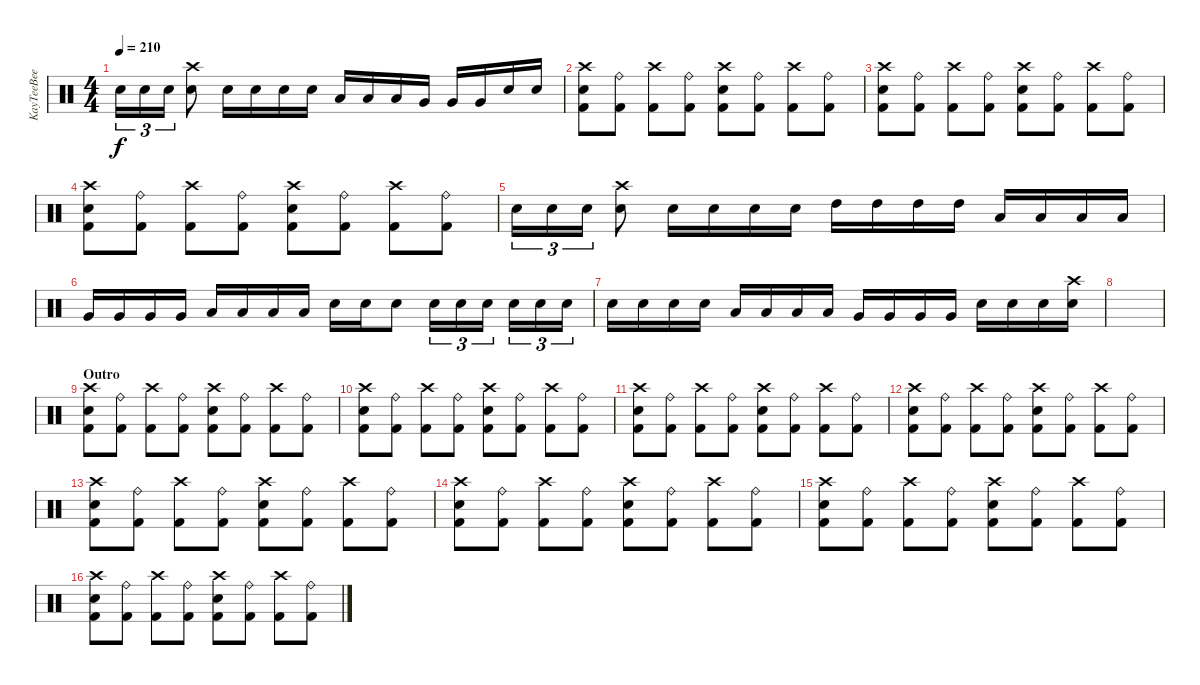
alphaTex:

\track ("KayTeeBee" "KayTeeBee") {instrument percussion}
\staff {score}
\articulation defaults
\ts (4 4)
\tempo 210
\clef neutral
\ks c "Electric Snare (hit)".16{tu (3 2) dy f} "Electric Snare (hit)".16{tu (3 2)} "Electric Snare (hit)".16{tu (3 2)}
("Electric Snare (hit)" "Crash high (hit)").8 "Electric Snare (hit)".16 "Electric Snare (hit)".16 "Electric Snare (hit)".16 "Electric Snare (hit)".16 "Low Tom (hit)".16 "Low Tom (hit)".16 "Low Tom (hit)".16 "Very Low Tom (hit)".16 "Very Low Tom (hit)".16 "Very Low Tom (hit)".16 "Electric Snare (hit)".16 "Electric Snare (hit)".16 |
("Kick (hit) 2" "Electric Snare (hit)" "Crash high (hit)").8 ("Kick (hit) 2" "Ride (bell)").8 ("Kick (hit) 2" "Crash high (hit)").8 ("Kick (hit) 2" "Ride (bell)").8 ("Kick (hit) 2" "Crash high (hit)" "Electric Snare (hit)").8 ("Kick (hit) 2" "Ride (bell)").8 ("Kick (hit) 2" "Crash high (hit)").8 ("Kick (hit) 2" "Ride (bell)").8 |
("Kick (hit) 2" "Electric Snare (hit)" "Crash high (hit)").8 ("Kick (hit) 2" "Ride (bell)").8 ("Kick (hit) 2" "Crash high (hit)").8 ("Kick (hit) 2" "Ride (bell)").8 ("Kick (hit) 2" "Crash high (hit)" "Electric Snare (hit)").8 ("Kick (hit) 2" "Ride (bell)").8 ("Kick (hit) 2" "Crash high (hit)").8 ("Kick (hit) 2" "Ride (bell)").8 |
("Kick (hit) 2" "Electric Snare (hit)" "Crash high (hit)").8 ("Kick (hit) 2" "Ride (bell)").8 ("Kick (hit) 2" "Crash high (hit)").8 ("Kick (hit) 2" "Ride (bell)").8 ("Kick (hit) 2" "Crash high (hit)" "Electric Snare (hit)").8 ("Kick (hit) 2" "Ride (bell)").8 ("Kick (hit) 2" "Crash high (hit)").8 ("Kick (hit) 2" "Ride (bell)").8 |
"Electric Snare (hit)".16{tu (3 2)} "Electric Snare (hit)".16{tu (3 2)} "Electric Snare (hit)".16{tu (3 2)} ("Electric Snare (hit)" "Crash high (hit)").8 "Electric Snare (hit)".16 "Electric Snare (hit)".16 "Electric Snare (hit)".16 "Electric Snare (hit)".16 "High Tom (hit)".16 "High Tom (hit)".16 "High Tom (hit)".16 "High Tom (hit)".16 "Low Tom (hit)".16 "Low Tom (hit)".16 "Low Tom (hit)".16 "Low Tom (hit)".16 |
"Very Low Tom (hit)".16 "Very Low Tom (hit)".16 "Very Low Tom (hit)".16 "Very Low Tom (hit)".16 "Low Floor Tom (hit)".16 "Low Floor Tom (hit)".16 "Low Floor Tom (hit)".16 "Low Floor Tom (hit)".16 "Electric Snare (hit)".16 "Electric Snare (hit)".16 "Electric Snare (hit)".8 "Electric Snare (hit)".16{tu (3 2)} "Electric Snare (hit)".16{tu (3 2)} "Electric Snare (hit)".16{tu (3 2)} "Electric Snare (hit)".16{tu (3 2)} "Electric Snare (hit)".16{tu (3 2)} "Electric Snare (hit)".16{tu (3 2)} |
"Electric Snare (hit)".16 "Electric Snare (hit)".16 "Electric Snare (hit)".16 "Electric Snare (hit)".16 "Low Tom (hit)".16 "Low Tom (hit)".16 "Low Tom (hit)".16 "Low Tom (hit)".16 "Very Low Tom (hit)".16 "Very Low Tom (hit)".16 "Very Low Tom (hit)".16 "Very Low Tom (hit)".16 "Electric Snare (hit)".16 "Electric Snare (hit)".16 "Electric Snare (hit)".16 ("Electric Snare (hit)" "Crash high (hit)").16 |
|
\section ("" "Outro")
("Kick (hit) 2" "Electric Snare (hit)" "Crash high (hit)").8 ("Kick (hit) 2" "Ride (bell)").8 ("Kick (hit) 2" "Crash high (hit)").8 ("Kick (hit) 2" "Ride (bell)").8 ("Kick (hit) 2" "Crash high (hit)" "Electric Snare (hit)").8 ("Kick (hit) 2" "Ride (bell)").8 ("Kick (hit) 2" "Crash high (hit)").8 ("Kick (hit) 2" "Ride (bell)").8 |
("Kick (hit) 2" "Electric Snare (hit)" "Crash high (hit)").8 ("Kick (hit) 2" "Ride (bell)").8 ("Kick (hit) 2" "Crash high (hit)").8 ("Kick (hit) 2" "Ride (bell)").8 ("Kick (hit) 2" "Crash high (hit)" "Electric Snare (hit)").8 ("Kick (hit) 2" "Ride (bell)").8 ("Kick (hit) 2" "Crash high (hit)").8 ("Kick (hit) 2" "Ride (bell)").8 |
("Kick (hit) 2" "Electric Snare (hit)" "Crash high (hit)").8 ("Kick (hit) 2" "Ride (bell)").8 ("Kick (hit) 2" "Crash high (hit)").8 ("Kick (hit) 2" "Ride (bell)").8 ("Kick (hit) 2" "Crash high (hit)" "Electric Snare (hit)").8 ("Kick (hit) 2" "Ride (bell)").8 ("Kick (hit) 2" "Crash high (hit)").8 ("Kick (hit) 2" "Ride (bell)").8 |
("Kick (hit) 2" "Electric Snare (hit)" "Crash high (hit)").8{volume 0} ("Kick (hit) 2" "Ride (bell)").8 ("Kick (hit) 2" "Crash high (hit)").8 ("Kick (hit) 2" "Ride (bell)").8 ("Kick (hit) 2" "Crash high (hit)" "Electric Snare (hit)").8 ("Kick (hit) 2" "Ride (bell)").8 ("Kick (hit) 2" "Crash high (hit)").8 ("Kick (hit) 2" "Ride (bell)").8 |
("Kick (hit) 2" "Electric Snare (hit)" "Crash high (hit)").8 ("Kick (hit) 2" "Ride (bell)").8 ("Kick (hit) 2" "Crash high (hit)").8 ("Kick (hit) 2" "Ride (bell)").8 ("Kick (hit) 2" "Crash high (hit)" "Electric Snare (hit)").8 ("Kick (hit) 2" "Ride (bell)").8 ("Kick (hit) 2" "Crash high (hit)").8 ("Kick (hit) 2" "Ride (bell)").8 |
("Kick (hit) 2" "Electric Snare (hit)" "Crash high (hit)").8 ("Kick (hit) 2" "Ride (bell)").8 ("Kick (hit) 2" "Crash high (hit)").8 ("Kick (hit) 2" "Ride (bell)").8 ("Kick (hit) 2" "Crash high (hit)" "Electric Snare (hit)").8 ("Kick (hit) 2" "Ride (bell)").8 ("Kick (hit) 2" "Crash high (hit)").8 ("Kick (hit) 2" "Ride (bell)").8 |
("Kick (hit) 2" "Electric Snare (hit)" "Crash high (hit)").8 ("Kick (hit) 2" "Ride (bell)").8 ("Kick (hit) 2" "Crash high (hit)").8 ("Kick (hit) 2" "Ride (bell)").8 ("Kick (hit) 2" "Crash high (hit)" "Electric Snare (hit)").8 ("Kick (hit) 2" "Ride (bell)").8 ("Kick (hit) 2" "Crash high (hit)").8 ("Kick (hit) 2" "Ride (bell)").8 |
("Kick (hit) 2" "Electric Snare (hit)" "Crash high (hit)").8 ("Kick (hit) 2" "Ride (bell)").8 ("Kick (hit) 2" "Crash high (hit)").8 ("Kick (hit) 2" "Ride (bell)").8 ("Kick (hit) 2" "Crash high (hit)" "Electric Snare (hit)").8 ("Kick (hit) 2" "Ride (bell)").8 ("Kick (hit) 2" "Crash high (hit)").8 ("Kick (hit) 2" "Ride (bell)").8
